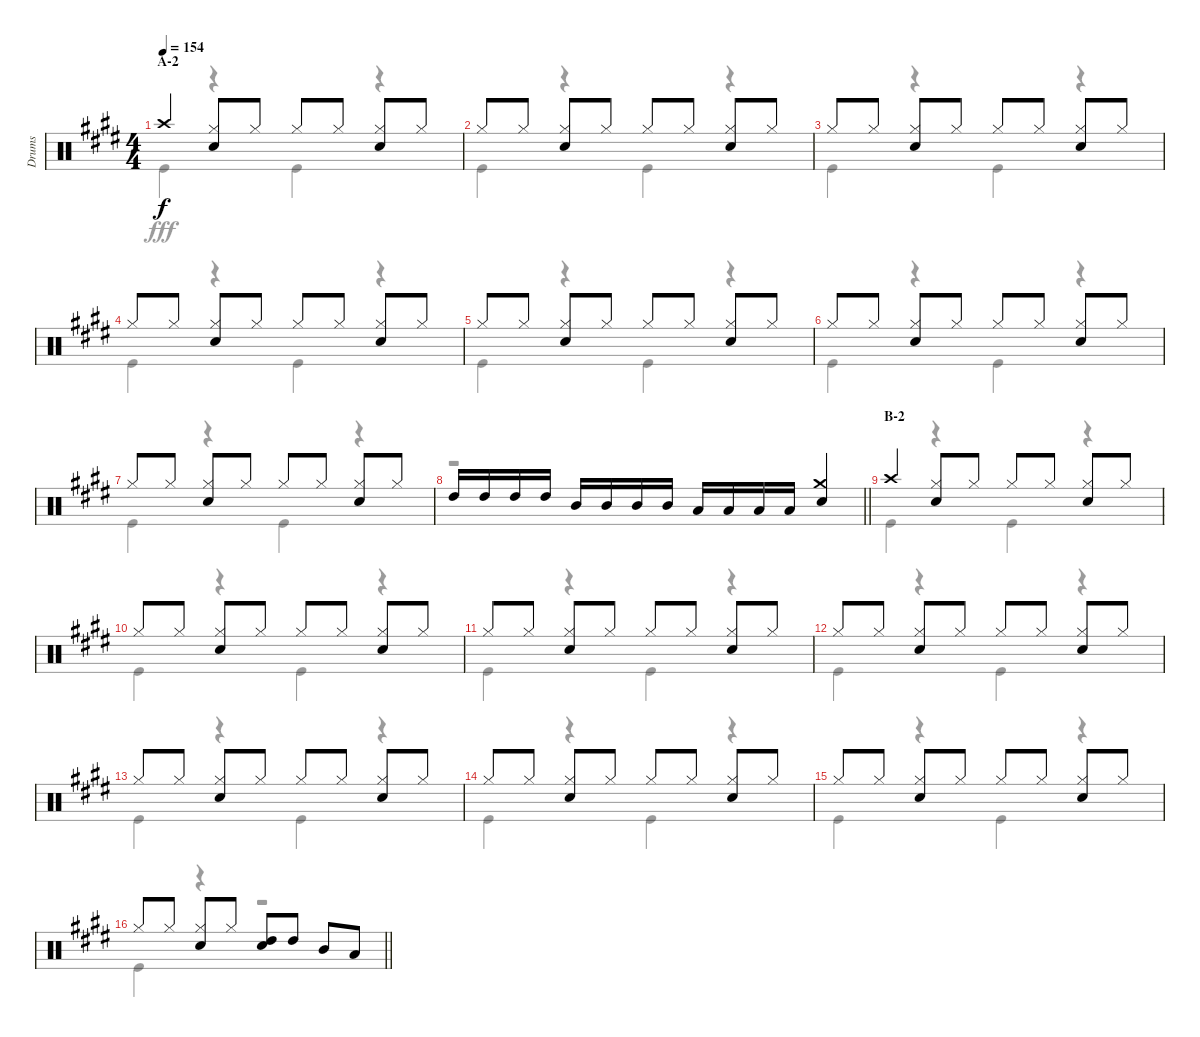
\track ("Drums" "Drums") {instrument percussion}
\staff {score}
\articulation defaults
\voice
\ts (4 4)
\section ("" "A-2")
\tempo 154
\clef neutral
\ks e "Crash high (hit)".4{dy f}
("Hi-Hat (closed)" "Snare (hit) 2").8 "Hi-Hat (closed)".8 "Hi-Hat (closed)".8 "Hi-Hat (closed)".8 ("Hi-Hat (closed)" "Snare (hit) 2").8 "Hi-Hat (closed)".8 |
"Hi-Hat (closed)".8 "Hi-Hat (closed)".8 ("Hi-Hat (closed)" "Snare (hit) 2").8 "Hi-Hat (closed)".8 "Hi-Hat (closed)".8 "Hi-Hat (closed)".8 ("Hi-Hat (closed)" "Snare (hit) 2").8 "Hi-Hat (closed)".8 |
"Hi-Hat (closed)".8 "Hi-Hat (closed)".8 ("Hi-Hat (closed)" "Snare (hit) 2").8 "Hi-Hat (closed)".8 "Hi-Hat (closed)".8 "Hi-Hat (closed)".8 ("Hi-Hat (closed)" "Snare (hit) 2").8 "Hi-Hat (closed)".8 |
"Hi-Hat (closed)".8 "Hi-Hat (closed)".8 ("Hi-Hat (closed)" "Snare (hit) 2").8 "Hi-Hat (closed)".8 "Hi-Hat (closed)".8 "Hi-Hat (closed)".8 ("Hi-Hat (closed)" "Snare (hit) 2").8 "Hi-Hat (closed)".8 |
"Hi-Hat (closed)".8 "Hi-Hat (closed)".8 ("Hi-Hat (closed)" "Snare (hit) 2").8 "Hi-Hat (closed)".8 "Hi-Hat (closed)".8 "Hi-Hat (closed)".8 ("Hi-Hat (closed)" "Snare (hit) 2").8 "Hi-Hat (closed)".8 |
"Hi-Hat (closed)".8 "Hi-Hat (closed)".8 ("Hi-Hat (closed)" "Snare (hit) 2").8 "Hi-Hat (closed)".8 "Hi-Hat (closed)".8 "Hi-Hat (closed)".8 ("Hi-Hat (closed)" "Snare (hit) 2").8 "Hi-Hat (closed)".8 |
"Hi-Hat (closed)".8 "Hi-Hat (closed)".8 ("Hi-Hat (closed)" "Snare (hit) 2").8 "Hi-Hat (closed)".8 "Hi-Hat (closed)".8 "Hi-Hat (closed)".8 ("Hi-Hat (closed)" "Snare (hit) 2").8 "Hi-Hat (closed)".8 |
\barLineRight lightlight "High Tom (hit)".16 "High Tom (hit)".16 "High Tom (hit)".16 "High Tom (hit)".16 "Mid Tom (hit)".16 "Mid Tom (hit)".16 "Mid Tom (hit)".16 "Mid Tom (hit)".16 "Low Tom (hit)".16 "Low Tom (hit)".16 "Low Tom (hit)".16 "Low Tom (hit)".16
("Crash medium (hit)" "Snare (hit) 2").4 |
\section ("" "B-2")
"Crash high (hit)".4 ("Hi-Hat (closed)" "Snare (hit) 2").8 "Hi-Hat (closed)".8 "Hi-Hat (closed)".8 "Hi-Hat (closed)".8 ("Hi-Hat (closed)" "Snare (hit) 2").8 "Hi-Hat (closed)".8 |
"Hi-Hat (closed)".8 "Hi-Hat (closed)".8 ("Hi-Hat (closed)" "Snare (hit) 2").8 "Hi-Hat (closed)".8 "Hi-Hat (closed)".8 "Hi-Hat (closed)".8 ("Hi-Hat (closed)" "Snare (hit) 2").8 "Hi-Hat (closed)".8 |
"Hi-Hat (closed)".8 "Hi-Hat (closed)".8 ("Hi-Hat (closed)" "Snare (hit) 2").8 "Hi-Hat (closed)".8 "Hi-Hat (closed)".8 "Hi-Hat (closed)".8 ("Hi-Hat (closed)" "Snare (hit) 2").8 "Hi-Hat (closed)".8 |
"Hi-Hat (closed)".8 "Hi-Hat (closed)".8 ("Hi-Hat (closed)" "Snare (hit) 2").8 "Hi-Hat (closed)".8 "Hi-Hat (closed)".8 "Hi-Hat (closed)".8 ("Hi-Hat (closed)" "Snare (hit) 2").8 "Hi-Hat (closed)".8 |
"Hi-Hat (closed)".8 "Hi-Hat (closed)".8 ("Hi-Hat (closed)" "Snare (hit) 2").8 "Hi-Hat (closed)".8 "Hi-Hat (closed)".8 "Hi-Hat (closed)".8 ("Hi-Hat (closed)" "Snare (hit) 2").8 "Hi-Hat (closed)".8 |
"Hi-Hat (closed)".8 "Hi-Hat (closed)".8 ("Hi-Hat (closed)" "Snare (hit) 2").8 "Hi-Hat (closed)".8 "Hi-Hat (closed)".8 "Hi-Hat (closed)".8 ("Hi-Hat (closed)" "Snare (hit) 2").8 "Hi-Hat (closed)".8 |
"Hi-Hat (closed)".8 "Hi-Hat (closed)".8 ("Hi-Hat (closed)" "Snare (hit) 2").8 "Hi-Hat (closed)".8 "Hi-Hat (closed)".8 "Hi-Hat (closed)".8 ("Hi-Hat (closed)" "Snare (hit) 2").8 "Hi-Hat (closed)".8 |
\barLineRight lightlight "Hi-Hat (closed)".8 "Hi-Hat (closed)".8
("Hi-Hat (closed)" "Snare (hit) 2").8 "Hi-Hat (closed)".8 ("High Tom (hit)" "Snare (hit) 2").8 "High Tom (hit)".8 "Mid Tom (hit)".8 "Low Tom (hit)".8
\voice
\clef neutral
\ottava regular
\simile none
\ks e "Kick (hit)".4{dy fff}
r.4 "Kick (hit)".4 r.4 |
"Kick (hit)".4 r.4 "Kick (hit)".4 r.4 |
"Kick (hit)".4 r.4 "Kick (hit)".4 r.4 |
"Kick (hit)".4 r.4 "Kick (hit)".4 r.4 |
"Kick (hit)".4 r.4 "Kick (hit)".4 r.4 |
"Kick (hit)".4 r.4 "Kick (hit)".4 r.4 |
"Kick (hit)".4 r.4 "Kick (hit)".4 r.4 |
\barLineRight lightlight
r.1 |
"Kick (hit)".4 r.4 "Kick (hit)".4 r.4 |
"Kick (hit)".4 r.4 "Kick (hit)".4 r.4 |
"Kick (hit)".4 r.4 "Kick (hit)".4 r.4 |
"Kick (hit)".4 r.4 "Kick (hit)".4 r.4 |
"Kick (hit)".4 r.4 "Kick (hit)".4 r.4 |
"Kick (hit)".4 r.4 "Kick (hit)".4 r.4 |
"Kick (hit)".4 r.4 "Kick (hit)".4 r.4 |
\barLineRight lightlight "Kick (hit)".4
r.4 r.2
